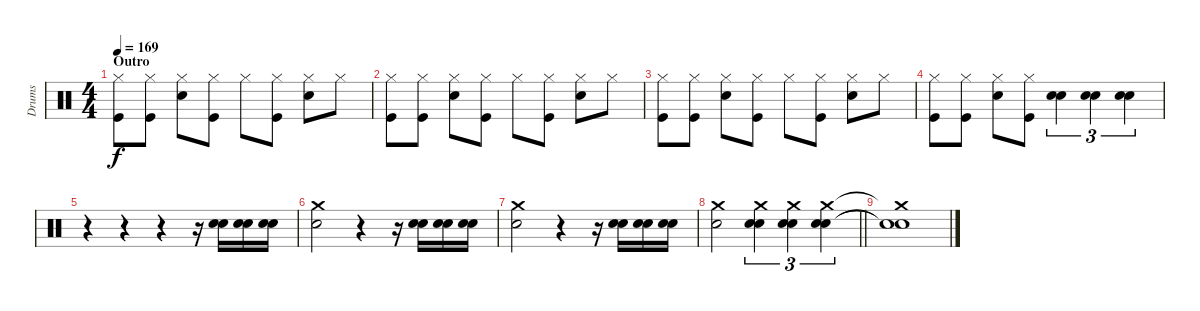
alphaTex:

\track ("Drums" "Drums") {instrument percussion}
\staff {score}
\articulation defaults
\ts (4 4)
\section ("" "Outro")
\tempo 169
\clef neutral
\ks c
("Hi-Hat (closed)" "Kick (hit)").8{dy f} ("Hi-Hat (closed)" "Kick (hit)").8 ("Hi-Hat (closed)" "Snare (hit) 2").8 ("Hi-Hat (closed)" "Kick (hit)").8 "Hi-Hat (closed)".8 ("Hi-Hat (closed)" "Kick (hit)").8 ("Hi-Hat (closed)" "Snare (hit) 2").8 "Hi-Hat (closed)".8 |
("Hi-Hat (closed)" "Kick (hit)").8 ("Hi-Hat (closed)" "Kick (hit)").8 ("Hi-Hat (closed)" "Snare (hit) 2").8 ("Hi-Hat (closed)" "Kick (hit)").8 "Hi-Hat (closed)".8 ("Hi-Hat (closed)" "Kick (hit)").8 ("Hi-Hat (closed)" "Snare (hit) 2").8 "Hi-Hat (closed)".8 |
("Hi-Hat (closed)" "Kick (hit)").8 ("Hi-Hat (closed)" "Kick (hit)").8 ("Hi-Hat (closed)" "Snare (hit) 2").8 ("Hi-Hat (closed)" "Kick (hit)").8 "Hi-Hat (closed)".8 ("Hi-Hat (closed)" "Kick (hit)").8 ("Hi-Hat (closed)" "Snare (hit) 2").8 "Hi-Hat (closed)".8 |
("Hi-Hat (closed)" "Kick (hit)").8 ("Hi-Hat (closed)" "Kick (hit)").8 ("Hi-Hat (closed)" "Snare (hit) 2").8 ("Hi-Hat (closed)" "Kick (hit)").8 ("Snare (hit) 2" "Snare (hit) 2").4{tu (3 2)} ("Snare (hit) 2" "Snare (hit) 2").4{tu (3 2)} ("Snare (hit) 2" "Snare (hit) 2").4{tu (3 2)} |
r.4 r.4 r.4 r.16 ("Snare (hit) 2" "Snare (hit) 2").16 ("Snare (hit) 2" "Snare (hit) 2").16 ("Snare (hit) 2" "Snare (hit) 2").16 |
("Snare (hit) 2" "Crash medium (hit)").2 r.4 r.16 ("Snare (hit) 2" "Snare (hit) 2").16 ("Snare (hit) 2" "Snare (hit) 2").16 ("Snare (hit) 2" "Snare (hit) 2").16 |
("Snare (hit) 2" "Crash medium (hit)").2 r.4 r.16 ("Snare (hit) 2" "Snare (hit) 2").16 ("Snare (hit) 2" "Snare (hit) 2").16 ("Snare (hit) 2" "Snare (hit) 2").16 |
\barLineRight lightlight
("Snare (hit) 2" "Crash medium (hit)").2 ("Snare (hit) 2" "Snare (hit) 2" "Crash medium (hit)").4{tu (3 2)} ("Snare (hit) 2" "Snare (hit) 2" "Crash medium (hit)").4{tu (3 2)} ("Snare (hit) 2" "Snare (hit) 2" "Crash medium (hit)").4{tu (3 2)} |
("Snare (hit) 2"{t} "Snare (hit) 2"{t} "Crash medium (hit)"{t}).1
